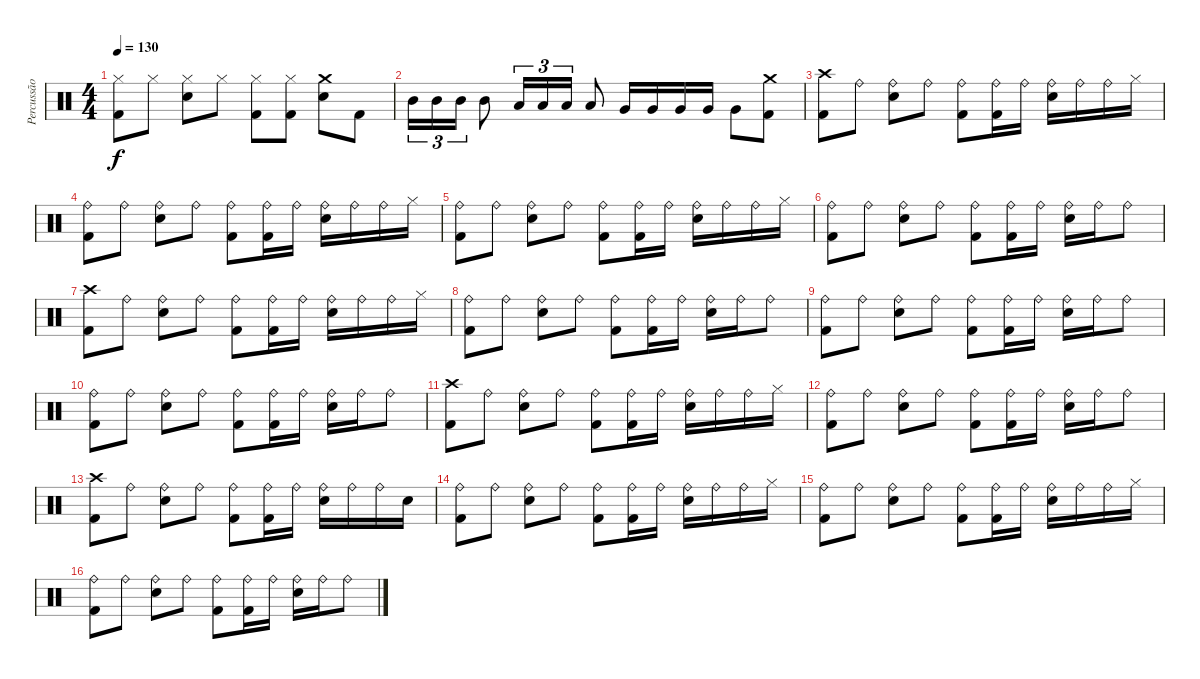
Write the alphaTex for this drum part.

\track ("Percussão" "Percussão") {instrument percussion}
\staff {score}
\articulation defaults
\ts (4 4)
\tempo 130
\clef neutral
\ks c
("Hi-Hat (closed)" "Kick (hit) 2").8{dy f} "Hi-Hat (closed)".8 ("Hi-Hat (closed)" "Electric Snare (hit)").8 "Hi-Hat (closed)".8 ("Hi-Hat (closed)" "Kick (hit) 2").8 ("Hi-Hat (closed)" "Kick (hit) 2").8 ("Crash medium (hit)" "Electric Snare (hit)").8 "Kick (hit) 2".8 |
"Mid Tom (hit)".16{tu (3 2)} "Mid Tom (hit)".16{tu (3 2)} "Mid Tom (hit)".16{tu (3 2)} "Mid Tom (hit)".8 "Low Tom (hit)".16{tu (3 2)} "Low Tom (hit)".16{tu (3 2)} "Low Tom (hit)".16{tu (3 2)} "Low Tom (hit)".8 "Very Low Tom (hit)".16 "Very Low Tom (hit)".16 "Very Low Tom (hit)".16 "Very Low Tom (hit)".16 "Very Low Tom (hit)".8 ("Crash medium (hit)" "Kick (hit) 2").8 |
("Crash high (hit)" "Kick (hit) 2").8 "Ride (bell)".8 ("Ride (bell)" "Electric Snare (hit)").8 "Ride (bell)".8 ("Ride (bell)" "Kick (hit) 2").8 ("Ride (bell)" "Kick (hit) 2").16 "Ride (bell)".16 ("Ride (bell)" "Electric Snare (hit)").16 "Ride (bell)".16 "Ride (bell)".16 "Hi-Hat (closed)".16 |
("Ride (bell)" "Kick (hit) 2").8 "Ride (bell)".8 ("Ride (bell)" "Electric Snare (hit)").8 "Ride (bell)".8 ("Ride (bell)" "Kick (hit) 2").8 ("Ride (bell)" "Kick (hit) 2").16 "Ride (bell)".16 ("Ride (bell)" "Electric Snare (hit)").16 "Ride (bell)".16 "Ride (bell)".16 "Hi-Hat (closed)".16 |
("Ride (bell)" "Kick (hit) 2").8 "Ride (bell)".8 ("Ride (bell)" "Electric Snare (hit)").8 "Ride (bell)".8 ("Ride (bell)" "Kick (hit) 2").8 ("Ride (bell)" "Kick (hit) 2").16 "Ride (bell)".16 ("Ride (bell)" "Electric Snare (hit)").16 "Ride (bell)".16 "Ride (bell)".16 "Hi-Hat (closed)".16 |
("Ride (bell)" "Kick (hit) 2").8 "Ride (bell)".8 ("Ride (bell)" "Electric Snare (hit)").8 "Ride (bell)".8 ("Ride (bell)" "Kick (hit) 2").8 ("Ride (bell)" "Kick (hit) 2").16 "Ride (bell)".16 ("Ride (bell)" "Electric Snare (hit)").16 "Ride (bell)".16 "Ride (bell)".8 |
("Crash high (hit)" "Kick (hit) 2").8 "Ride (bell)".8 ("Ride (bell)" "Electric Snare (hit)").8 "Ride (bell)".8 ("Ride (bell)" "Kick (hit) 2").8 ("Ride (bell)" "Kick (hit) 2").16 "Ride (bell)".16 ("Ride (bell)" "Electric Snare (hit)").16 "Ride (bell)".16 "Ride (bell)".16 "Hi-Hat (closed)".16 |
("Ride (bell)" "Kick (hit) 2").8 "Ride (bell)".8 ("Ride (bell)" "Electric Snare (hit)").8 "Ride (bell)".8 ("Ride (bell)" "Kick (hit) 2").8 ("Ride (bell)" "Kick (hit) 2").16 "Ride (bell)".16 ("Ride (bell)" "Electric Snare (hit)").16 "Ride (bell)".16 "Ride (bell)".8 |
("Ride (bell)" "Kick (hit) 2").8 "Ride (bell)".8 ("Ride (bell)" "Electric Snare (hit)").8 "Ride (bell)".8 ("Ride (bell)" "Kick (hit) 2").8 ("Ride (bell)" "Kick (hit) 2").16 "Ride (bell)".16 ("Ride (bell)" "Electric Snare (hit)").16 "Ride (bell)".16 "Ride (bell)".8 |
("Ride (bell)" "Kick (hit) 2").8 "Ride (bell)".8 ("Ride (bell)" "Electric Snare (hit)").8 "Ride (bell)".8 ("Ride (bell)" "Kick (hit) 2").8 ("Ride (bell)" "Kick (hit) 2").16 "Ride (bell)".16 ("Ride (bell)" "Electric Snare (hit)").16 "Ride (bell)".16 "Ride (bell)".8 |
("Crash high (hit)" "Kick (hit) 2").8 "Ride (bell)".8 ("Ride (bell)" "Electric Snare (hit)").8 "Ride (bell)".8 ("Ride (bell)" "Kick (hit) 2").8 ("Ride (bell)" "Kick (hit) 2").16 "Ride (bell)".16 ("Ride (bell)" "Electric Snare (hit)").16 "Ride (bell)".16 "Ride (bell)".16 "Hi-Hat (closed)".16 |
("Ride (bell)" "Kick (hit) 2").8 "Ride (bell)".8 ("Ride (bell)" "Electric Snare (hit)").8 "Ride (bell)".8 ("Ride (bell)" "Kick (hit) 2").8 ("Ride (bell)" "Kick (hit) 2").16 "Ride (bell)".16 ("Ride (bell)" "Electric Snare (hit)").16 "Ride (bell)".16 "Ride (bell)".8 |
("Crash high (hit)" "Kick (hit) 2").8 "Ride (bell)".8 ("Ride (bell)" "Electric Snare (hit)").8 "Ride (bell)".8 ("Ride (bell)" "Kick (hit) 2").8 ("Ride (bell)" "Kick (hit) 2").16 "Ride (bell)".16 ("Ride (bell)" "Electric Snare (hit)").16 "Ride (bell)".16 "Ride (bell)".16 "Electric Snare (hit)".16 |
("Ride (bell)" "Kick (hit) 2").8 "Ride (bell)".8 ("Ride (bell)" "Electric Snare (hit)").8 "Ride (bell)".8 ("Ride (bell)" "Kick (hit) 2").8 ("Ride (bell)" "Kick (hit) 2").16 "Ride (bell)".16 ("Ride (bell)" "Electric Snare (hit)").16 "Ride (bell)".16 "Ride (bell)".16 "Hi-Hat (closed)".16 |
("Ride (bell)" "Kick (hit) 2").8 "Ride (bell)".8 ("Ride (bell)" "Electric Snare (hit)").8 "Ride (bell)".8 ("Ride (bell)" "Kick (hit) 2").8 ("Ride (bell)" "Kick (hit) 2").16 "Ride (bell)".16 ("Ride (bell)" "Electric Snare (hit)").16 "Ride (bell)".16 "Ride (bell)".16 "Hi-Hat (closed)".16 |
("Ride (bell)" "Kick (hit) 2").8 "Ride (bell)".8 ("Ride (bell)" "Electric Snare (hit)").8 "Ride (bell)".8 ("Ride (bell)" "Kick (hit) 2").8 ("Ride (bell)" "Kick (hit) 2").16 "Ride (bell)".16 ("Ride (bell)" "Electric Snare (hit)").16 "Ride (bell)".16 "Ride (bell)".8
